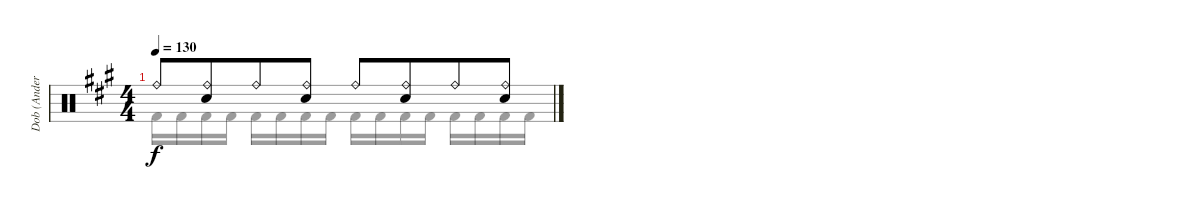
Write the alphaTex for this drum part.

\track ("Dob (Anders Johansson)" "Dob (Ander") {instrument percussion}
\staff {score}
\articulation defaults
\voice
\ts (4 4)
\tempo 130
\clef neutral
\ks a "Ride (bell)".8{dy f}
("Ride (bell)" "Electric Snare (hit)").8{beam merge} "Ride (bell)".8 ("Ride (bell)" "Electric Snare (hit)").8 "Ride (bell)".8 ("Ride (bell)" "Electric Snare (hit)").8{beam merge} "Ride (bell)".8 ("Ride (bell)" "Electric Snare (hit)").8 |
\voice
\clef neutral
\ottava regular
\simile none
\ks a "Kick (hit) 2".16{dy f} "Kick (hit) 2".16 "Kick (hit) 2".16 "Kick (hit) 2".16 "Kick (hit) 2".16 "Kick (hit) 2".16 "Kick (hit) 2".16 "Kick (hit) 2".16 "Kick (hit) 2".16 "Kick (hit) 2".16 "Kick (hit) 2".16 "Kick (hit) 2".16 "Kick (hit) 2".16 "Kick (hit) 2".16 "Kick (hit) 2".16 "Kick (hit) 2".16
|
